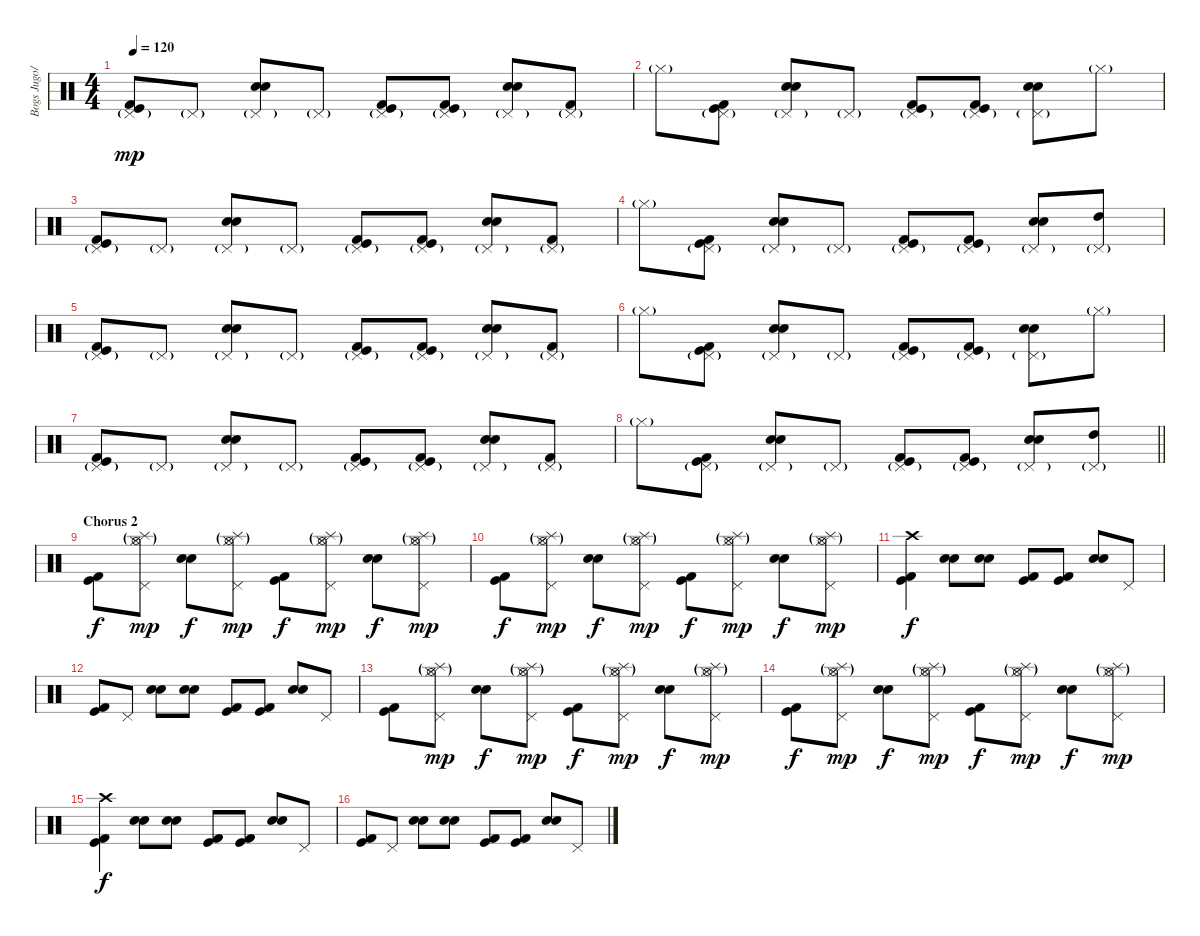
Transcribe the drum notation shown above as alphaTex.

\track ("Bogs Jugo/Drums" "Bogs Jugo/") {instrument percussion}
\staff {score}
\articulation defaults
\ts (4 4)
\tempo 120
\clef neutral
\ks c
("Pedal Hi-Hat (hit)"{g} "Kick (hit) 2" "Kick (hit)").8{dy mp} "Pedal Hi-Hat (hit)"{g}.8 ("Pedal Hi-Hat (hit)"{g} "Electric Snare (hit)" "Snare (hit) 2").8 "Pedal Hi-Hat (hit)"{g}.8 ("Pedal Hi-Hat (hit)"{g} "Kick (hit) 2" "Kick (hit)").8 ("Pedal Hi-Hat (hit)"{g} "Kick (hit) 2" "Kick (hit)").8 ("Pedal Hi-Hat (hit)"{g} "Electric Snare (hit)" "Snare (hit) 2").8 ("Pedal Hi-Hat (hit)"{g} "Kick (hit) 2").8 |
"Hi-Hat (closed)"{g}.8 ("Pedal Hi-Hat (hit)"{g} "Kick (hit) 2" "Kick (hit)").8 ("Pedal Hi-Hat (hit)"{g} "Electric Snare (hit)" "Snare (hit) 2").8 "Pedal Hi-Hat (hit)"{g}.8 ("Pedal Hi-Hat (hit)"{g} "Kick (hit) 2" "Kick (hit)").8 ("Pedal Hi-Hat (hit)"{g} "Kick (hit) 2" "Kick (hit)").8 ("Pedal Hi-Hat (hit)"{g} "Electric Snare (hit)" "Snare (hit) 2").8 "Hi-Hat (closed)"{g}.8 |
("Pedal Hi-Hat (hit)"{g} "Kick (hit) 2" "Kick (hit)").8 "Pedal Hi-Hat (hit)"{g}.8 ("Pedal Hi-Hat (hit)"{g} "Electric Snare (hit)" "Snare (hit) 2").8 "Pedal Hi-Hat (hit)"{g}.8 ("Pedal Hi-Hat (hit)"{g} "Kick (hit) 2" "Kick (hit)").8 ("Pedal Hi-Hat (hit)"{g} "Kick (hit) 2" "Kick (hit)").8 ("Pedal Hi-Hat (hit)"{g} "Electric Snare (hit)" "Snare (hit) 2").8 ("Pedal Hi-Hat (hit)"{g} "Kick (hit) 2").8 |
"Hi-Hat (closed)"{g}.8 ("Pedal Hi-Hat (hit)"{g} "Kick (hit) 2" "Kick (hit)").8 ("Pedal Hi-Hat (hit)"{g} "Electric Snare (hit)" "Snare (hit) 2").8 "Pedal Hi-Hat (hit)"{g}.8 ("Pedal Hi-Hat (hit)"{g} "Kick (hit) 2" "Kick (hit)").8 ("Pedal Hi-Hat (hit)"{g} "Kick (hit) 2" "Kick (hit)").8 ("Pedal Hi-Hat (hit)"{g} "Electric Snare (hit)" "Snare (hit) 2").8 ("Pedal Hi-Hat (hit)"{g} "High Tom (hit)").8 |
("Pedal Hi-Hat (hit)"{g} "Kick (hit) 2" "Kick (hit)").8 "Pedal Hi-Hat (hit)"{g}.8 ("Pedal Hi-Hat (hit)"{g} "Electric Snare (hit)" "Snare (hit) 2").8 "Pedal Hi-Hat (hit)"{g}.8 ("Pedal Hi-Hat (hit)"{g} "Kick (hit) 2" "Kick (hit)").8 ("Pedal Hi-Hat (hit)"{g} "Kick (hit) 2" "Kick (hit)").8 ("Pedal Hi-Hat (hit)"{g} "Electric Snare (hit)" "Snare (hit) 2").8 ("Pedal Hi-Hat (hit)"{g} "Kick (hit) 2").8 |
"Hi-Hat (closed)"{g}.8 ("Pedal Hi-Hat (hit)"{g} "Kick (hit) 2" "Kick (hit)").8 ("Pedal Hi-Hat (hit)"{g} "Electric Snare (hit)" "Snare (hit) 2").8 "Pedal Hi-Hat (hit)"{g}.8 ("Pedal Hi-Hat (hit)"{g} "Kick (hit) 2" "Kick (hit)").8 ("Pedal Hi-Hat (hit)"{g} "Kick (hit) 2" "Kick (hit)").8 ("Pedal Hi-Hat (hit)"{g} "Electric Snare (hit)" "Snare (hit) 2").8 "Hi-Hat (closed)"{g}.8 |
("Pedal Hi-Hat (hit)"{g} "Kick (hit) 2" "Kick (hit)").8 "Pedal Hi-Hat (hit)"{g}.8 ("Pedal Hi-Hat (hit)"{g} "Electric Snare (hit)" "Snare (hit) 2").8 "Pedal Hi-Hat (hit)"{g}.8 ("Pedal Hi-Hat (hit)"{g} "Kick (hit) 2" "Kick (hit)").8 ("Pedal Hi-Hat (hit)"{g} "Kick (hit) 2" "Kick (hit)").8 ("Pedal Hi-Hat (hit)"{g} "Electric Snare (hit)" "Snare (hit) 2").8 ("Pedal Hi-Hat (hit)"{g} "Kick (hit) 2").8 |
\barLineRight lightlight "Hi-Hat (closed)"{g}.8
("Pedal Hi-Hat (hit)"{g} "Kick (hit) 2" "Kick (hit)").8 ("Pedal Hi-Hat (hit)"{g} "Electric Snare (hit)" "Snare (hit) 2").8 "Pedal Hi-Hat (hit)"{g}.8 ("Pedal Hi-Hat (hit)"{g} "Kick (hit) 2" "Kick (hit)").8 ("Pedal Hi-Hat (hit)"{g} "Kick (hit) 2" "Kick (hit)").8 ("Pedal Hi-Hat (hit)"{g} "Electric Snare (hit)" "Snare (hit) 2").8 ("Pedal Hi-Hat (hit)"{g} "High Tom (hit)").8 |
\section ("" "Chorus 2")
("Kick (hit) 2" "Kick (hit)").8{dy f} ("Hi-Hat (open)"{g} "Splash (hit)"{g} "Pedal Hi-Hat (hit)" "Hi-Hat (closed)").8{dy mp} ("Electric Snare (hit)" "Snare (hit) 2").8{dy f} ("Hi-Hat (open)"{g} "Splash (hit)"{g} "Pedal Hi-Hat (hit)" "Hi-Hat (closed)").8{dy mp} ("Kick (hit) 2" "Kick (hit)").8{dy f} ("Hi-Hat (open)"{g} "Splash (hit)"{g} "Pedal Hi-Hat (hit)" "Hi-Hat (closed)").8{dy mp} ("Electric Snare (hit)" "Snare (hit) 2").8{dy f} ("Hi-Hat (open)"{g} "Splash (hit)"{g} "Pedal Hi-Hat (hit)" "Hi-Hat (closed)").8{dy mp} |
("Kick (hit) 2" "Kick (hit)").8{dy f} ("Hi-Hat (open)"{g} "Splash (hit)"{g} "Pedal Hi-Hat (hit)" "Hi-Hat (closed)").8{dy mp} ("Electric Snare (hit)" "Snare (hit) 2").8{dy f} ("Hi-Hat (open)"{g} "Splash (hit)"{g} "Pedal Hi-Hat (hit)" "Hi-Hat (closed)").8{dy mp} ("Kick (hit) 2" "Kick (hit)").8{dy f} ("Hi-Hat (open)"{g} "Splash (hit)"{g} "Pedal Hi-Hat (hit)" "Hi-Hat (closed)").8{dy mp} ("Electric Snare (hit)" "Snare (hit) 2").8{dy f} ("Hi-Hat (open)"{g} "Splash (hit)"{g} "Pedal Hi-Hat (hit)" "Hi-Hat (closed)").8{dy mp} |
("Crash high (hit)" "Kick (hit) 2" "Kick (hit)").4{dy f} ("Electric Snare (hit)" "Snare (hit) 2").8 ("Electric Snare (hit)" "Snare (hit) 2").8 ("Kick (hit) 2" "Kick (hit)").8 ("Kick (hit) 2" "Kick (hit)").8 ("Electric Snare (hit)" "Snare (hit) 2").8 "Pedal Hi-Hat (hit)".8 |
("Kick (hit) 2" "Kick (hit)").8 "Pedal Hi-Hat (hit)".8 ("Electric Snare (hit)" "Snare (hit) 2").8 ("Electric Snare (hit)" "Snare (hit) 2").8 ("Kick (hit) 2" "Kick (hit)").8 ("Kick (hit) 2" "Kick (hit)").8 ("Electric Snare (hit)" "Snare (hit) 2").8 "Pedal Hi-Hat (hit)".8 |
("Kick (hit) 2" "Kick (hit)").8 ("Hi-Hat (open)"{g} "Splash (hit)"{g} "Pedal Hi-Hat (hit)" "Hi-Hat (closed)").8{dy mp} ("Electric Snare (hit)" "Snare (hit) 2").8{dy f} ("Hi-Hat (open)"{g} "Splash (hit)"{g} "Pedal Hi-Hat (hit)" "Hi-Hat (closed)").8{dy mp} ("Kick (hit) 2" "Kick (hit)").8{dy f} ("Hi-Hat (open)"{g} "Splash (hit)"{g} "Pedal Hi-Hat (hit)" "Hi-Hat (closed)").8{dy mp} ("Electric Snare (hit)" "Snare (hit) 2").8{dy f} ("Hi-Hat (open)"{g} "Splash (hit)"{g} "Pedal Hi-Hat (hit)" "Hi-Hat (closed)").8{dy mp} |
("Kick (hit) 2" "Kick (hit)").8{dy f} ("Hi-Hat (open)"{g} "Splash (hit)"{g} "Pedal Hi-Hat (hit)" "Hi-Hat (closed)").8{dy mp} ("Electric Snare (hit)" "Snare (hit) 2").8{dy f} ("Hi-Hat (open)"{g} "Splash (hit)"{g} "Pedal Hi-Hat (hit)" "Hi-Hat (closed)").8{dy mp} ("Kick (hit) 2" "Kick (hit)").8{dy f} ("Hi-Hat (open)"{g} "Splash (hit)"{g} "Pedal Hi-Hat (hit)" "Hi-Hat (closed)").8{dy mp} ("Electric Snare (hit)" "Snare (hit) 2").8{dy f} ("Hi-Hat (open)"{g} "Splash (hit)"{g} "Pedal Hi-Hat (hit)" "Hi-Hat (closed)").8{dy mp} |
("Crash high (hit)" "Kick (hit) 2" "Kick (hit)").4{dy f} ("Electric Snare (hit)" "Snare (hit) 2").8 ("Electric Snare (hit)" "Snare (hit) 2").8 ("Kick (hit) 2" "Kick (hit)").8 ("Kick (hit) 2" "Kick (hit)").8 ("Electric Snare (hit)" "Snare (hit) 2").8 "Pedal Hi-Hat (hit)".8 |
("Kick (hit) 2" "Kick (hit)").8 "Pedal Hi-Hat (hit)".8 ("Electric Snare (hit)" "Snare (hit) 2").8 ("Electric Snare (hit)" "Snare (hit) 2").8 ("Kick (hit) 2" "Kick (hit)").8 ("Kick (hit) 2" "Kick (hit)").8 ("Electric Snare (hit)" "Snare (hit) 2").8 "Pedal Hi-Hat (hit)".8
